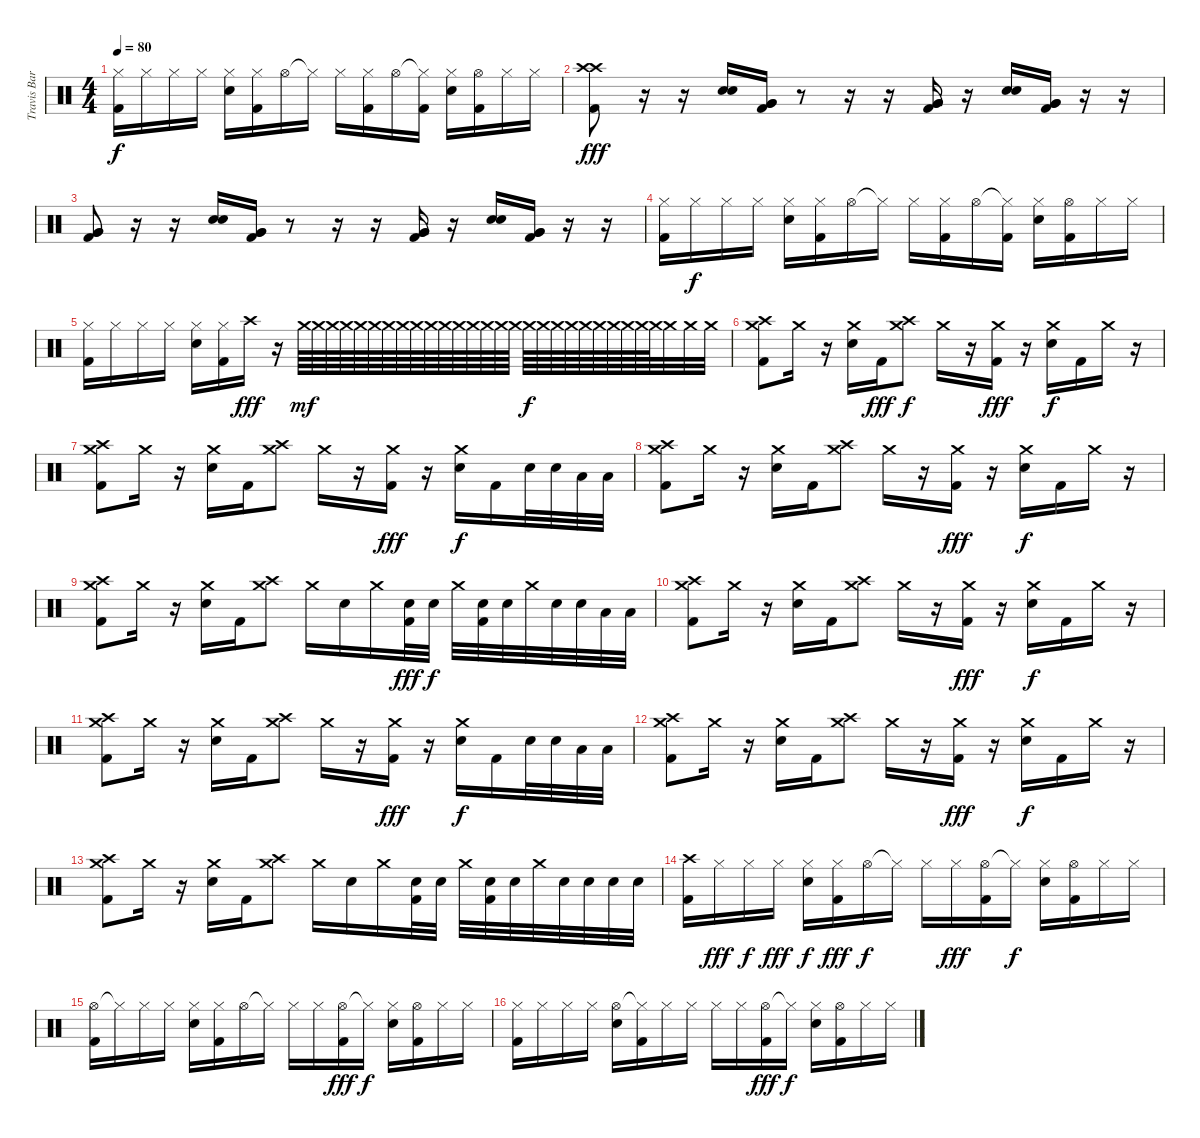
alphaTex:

\track ("Travis Barker" "Travis Bar") {instrument percussion}
\staff {score}
\articulation defaults
\ts (4 4)
\tempo 80
\clef neutral
\ks c
("Hi-Hat (closed)" "Kick (hit) 2").16{dy f} "Hi-Hat (closed)".16 "Hi-Hat (closed)".16 "Hi-Hat (closed)".16 ("Hi-Hat (closed)" "Electric Snare (hit)").16 ("Hi-Hat (closed)" "Kick (hit) 2").16 "Hi-Hat (open)".16 "Hi-Hat (closed)"{t}.16 "Hi-Hat (closed)".16 ("Hi-Hat (closed)" "Kick (hit) 2").16 "Hi-Hat (open)".16 ("Hi-Hat (closed)"{t} "Kick (hit) 2").16 ("Hi-Hat (closed)" "Electric Snare (hit)").16 ("Hi-Hat (open)" "Kick (hit) 2").16 "Hi-Hat (closed)".16 "Hi-Hat (closed)".16 |
("Crash high (hit)" "Crash high (hit)" "Kick (hit) 2").8{dy fff} r.16 r.16 ("Electric Snare (hit)" "Electric Snare (hit)").16 ("Very Low Tom (hit)" "Very Low Tom (hit)" "Kick (hit) 2").16 r.8 r.16 r.16 ("Very Low Tom (hit)" "Very Low Tom (hit)" "Kick (hit) 2").16 r.16 ("Electric Snare (hit)" "Electric Snare (hit)").16 ("Very Low Tom (hit)" "Very Low Tom (hit)" "Kick (hit) 2").16 r.16 r.16 |
("Very Low Tom (hit)" "Very Low Tom (hit)" "Kick (hit) 2").8 r.16 r.16 ("Electric Snare (hit)" "Electric Snare (hit)").16 ("Very Low Tom (hit)" "Very Low Tom (hit)" "Kick (hit) 2").16 r.8 r.16 r.16 ("Very Low Tom (hit)" "Very Low Tom (hit)" "Kick (hit) 2").16 r.16 ("Electric Snare (hit)" "Electric Snare (hit)").16 ("Very Low Tom (hit)" "Very Low Tom (hit)" "Kick (hit) 2").16 r.16 r.16 |
("Hi-Hat (closed)" "Kick (hit) 2").16 "Hi-Hat (closed)".16{dy f} "Hi-Hat (closed)".16 "Hi-Hat (closed)".16 ("Hi-Hat (closed)" "Electric Snare (hit)").16 ("Hi-Hat (closed)" "Kick (hit) 2").16 "Hi-Hat (open)".16 "Hi-Hat (closed)"{t}.16 "Hi-Hat (closed)".16 ("Hi-Hat (closed)" "Kick (hit) 2").16 "Hi-Hat (open)".16 ("Hi-Hat (closed)"{t} "Kick (hit) 2").16 ("Hi-Hat (closed)" "Electric Snare (hit)").16 ("Hi-Hat (open)" "Kick (hit) 2").16 "Hi-Hat (closed)".16 "Hi-Hat (closed)".16 |
("Hi-Hat (closed)" "Kick (hit) 2").16 "Hi-Hat (closed)".16 "Hi-Hat (closed)".16 "Hi-Hat (closed)".16 ("Hi-Hat (closed)" "Electric Snare (hit)").16 ("Hi-Hat (closed)" "Kick (hit) 2").16 "Crash high (hit)".16{dy fff} r.16 "Crash medium (hit)".64{dy mf} "Crash medium (hit)".64 "Crash medium (hit)".64 "Crash medium (hit)".64 "Crash medium (hit)".64 "Crash medium (hit)".64 "Crash medium (hit)".64 "Crash medium (hit)".64 "Crash medium (hit)".64 "Crash medium (hit)".64 "Crash medium (hit)".64 "Crash medium (hit)".64 "Crash medium (hit)".64 "Crash medium (hit)".64 "Crash medium (hit)".64 "Crash medium (hit)".64 "Crash medium (hit)".64{dy f} "Crash medium (hit)".64 "Crash medium (hit)".64 "Crash medium (hit)".64 "Crash medium (hit)".64 "Crash medium (hit)".64 "Crash medium (hit)".64 "Crash medium (hit)".64 "Crash medium (hit)".64 "Crash medium (hit)".64 "Crash medium (hit)".32 "Crash medium (hit)".32 "Crash medium (hit)".32 |
("Crash high (hit)" "Crash medium (hit)" "Kick (hit) 2").8 "Crash medium (hit)".16 r.16 ("Crash medium (hit)" "Electric Snare (hit)").16 "Kick (hit) 2".16{dy fff} ("Crash high (hit)" "Crash medium (hit)").8{dy f} "Crash medium (hit)".16 r.16 ("Crash medium (hit)" "Kick (hit) 2").16{dy fff} r.16 ("Crash medium (hit)" "Electric Snare (hit)").16{dy f} "Kick (hit) 2".16 "Crash medium (hit)".16 r.16 |
("Crash high (hit)" "Crash medium (hit)" "Kick (hit) 2").8 "Crash medium (hit)".16 r.16 ("Crash medium (hit)" "Electric Snare (hit)").16 "Kick (hit) 2".16 ("Crash high (hit)" "Crash medium (hit)").8 "Crash medium (hit)".16 r.16 ("Crash medium (hit)" "Kick (hit) 2").16{dy fff} r.16 ("Crash medium (hit)" "Electric Snare (hit)").16{dy f} "Kick (hit) 2".16 "Electric Snare (hit)".32 "Electric Snare (hit)".32 "Low Tom (hit)".32 "Low Tom (hit)".32 |
("Crash high (hit)" "Crash medium (hit)" "Kick (hit) 2").8 "Crash medium (hit)".16 r.16 ("Crash medium (hit)" "Electric Snare (hit)").16 "Kick (hit) 2".16 ("Crash high (hit)" "Crash medium (hit)").8 "Crash medium (hit)".16 r.16 ("Crash medium (hit)" "Kick (hit) 2").16{dy fff} r.16 ("Crash medium (hit)" "Electric Snare (hit)").16{dy f} "Kick (hit) 2".16 "Crash medium (hit)".16 r.16 |
("Crash high (hit)" "Crash medium (hit)" "Kick (hit) 2").8 "Crash medium (hit)".16 r.16 ("Crash medium (hit)" "Electric Snare (hit)").16 "Kick (hit) 2".16 ("Crash high (hit)" "Crash medium (hit)").8 "Crash medium (hit)".16 "Electric Snare (hit)".16 "Crash medium (hit)".16 ("Electric Snare (hit)" "Kick (hit) 2").32{dy fff} "Electric Snare (hit)".32{dy f} "Crash medium (hit)".32 ("Electric Snare (hit)" "Kick (hit) 2").32 "Electric Snare (hit)".32 "Crash medium (hit)".32 "Electric Snare (hit)".32 "Electric Snare (hit)".32 "Low Tom (hit)".32 "Low Tom (hit)".32 |
("Crash high (hit)" "Crash medium (hit)" "Kick (hit) 2").8 "Crash medium (hit)".16 r.16 ("Crash medium (hit)" "Electric Snare (hit)").16 "Kick (hit) 2".16 ("Crash high (hit)" "Crash medium (hit)").8 "Crash medium (hit)".16 r.16 ("Crash medium (hit)" "Kick (hit) 2").16{dy fff} r.16 ("Crash medium (hit)" "Electric Snare (hit)").16{dy f} "Kick (hit) 2".16 "Crash medium (hit)".16 r.16 |
("Crash high (hit)" "Crash medium (hit)" "Kick (hit) 2").8 "Crash medium (hit)".16 r.16 ("Crash medium (hit)" "Electric Snare (hit)").16 "Kick (hit) 2".16 ("Crash high (hit)" "Crash medium (hit)").8 "Crash medium (hit)".16 r.16 ("Crash medium (hit)" "Kick (hit) 2").16{dy fff} r.16 ("Crash medium (hit)" "Electric Snare (hit)").16{dy f} "Kick (hit) 2".16 "Electric Snare (hit)".32 "Electric Snare (hit)".32 "Low Tom (hit)".32 "Low Tom (hit)".32 |
("Crash high (hit)" "Crash medium (hit)" "Kick (hit) 2").8 "Crash medium (hit)".16 r.16 ("Crash medium (hit)" "Electric Snare (hit)").16 "Kick (hit) 2".16 ("Crash high (hit)" "Crash medium (hit)").8 "Crash medium (hit)".16 r.16 ("Crash medium (hit)" "Kick (hit) 2").16{dy fff} r.16 ("Crash medium (hit)" "Electric Snare (hit)").16{dy f} "Kick (hit) 2".16 "Crash medium (hit)".16 r.16 |
("Crash high (hit)" "Crash medium (hit)" "Kick (hit) 2").8 "Crash medium (hit)".16 r.16 ("Crash medium (hit)" "Electric Snare (hit)").16 "Kick (hit) 2".16 ("Crash high (hit)" "Crash medium (hit)").8 "Crash medium (hit)".16 "Electric Snare (hit)".16 "Crash medium (hit)".16 ("Electric Snare (hit)" "Kick (hit) 2").32 "Electric Snare (hit)".32 "Crash medium (hit)".32 ("Electric Snare (hit)" "Kick (hit) 2").32 "Electric Snare (hit)".32 "Crash medium (hit)".32 "Electric Snare (hit)".32 "Electric Snare (hit)".32 "Electric Snare (hit)".32 "Electric Snare (hit)".32 |
("Crash high (hit)" "Kick (hit) 2").16 "Hi-Hat (closed)".16{dy fff} "Hi-Hat (closed)".16{dy f} "Hi-Hat (closed)".16{dy fff} ("Hi-Hat (closed)" "Electric Snare (hit)").16{dy f} ("Hi-Hat (closed)" "Kick (hit) 2").16{dy fff} "Hi-Hat (open)".16{dy f} "Hi-Hat (closed)"{t}.16 "Hi-Hat (closed)".16 "Hi-Hat (closed)".16{dy fff} ("Hi-Hat (open)" "Kick (hit) 2").16 "Hi-Hat (closed)"{t}.16{dy f} ("Hi-Hat (closed)" "Electric Snare (hit)").16 ("Hi-Hat (open)" "Kick (hit) 2").16 "Hi-Hat (closed)".16 "Hi-Hat (closed)".16 |
("Hi-Hat (open)" "Kick (hit) 2").16 "Hi-Hat (closed)"{t}.16 "Hi-Hat (closed)".16 "Hi-Hat (closed)".16 ("Hi-Hat (closed)" "Electric Snare (hit)").16 ("Hi-Hat (closed)" "Kick (hit) 2").16 "Hi-Hat (open)".16 "Hi-Hat (closed)"{t}.16 "Hi-Hat (closed)".16 "Hi-Hat (closed)".16 ("Hi-Hat (open)" "Kick (hit) 2").16{dy fff} "Hi-Hat (closed)"{t}.16{dy f} ("Hi-Hat (closed)" "Electric Snare (hit)").16 ("Hi-Hat (open)" "Kick (hit) 2").16 "Hi-Hat (closed)".16 "Hi-Hat (closed)".16 |
("Hi-Hat (closed)" "Kick (hit) 2").16 "Hi-Hat (closed)".16 "Hi-Hat (closed)".16 "Hi-Hat (closed)".16 ("Hi-Hat (open)" "Electric Snare (hit)").16 ("Hi-Hat (closed)"{t} "Kick (hit) 2").16 "Hi-Hat (closed)".16 "Hi-Hat (closed)".16 "Hi-Hat (closed)".16 "Hi-Hat (closed)".16 ("Hi-Hat (open)" "Kick (hit) 2").16{dy fff} "Hi-Hat (closed)"{t}.16{dy f} ("Hi-Hat (closed)" "Electric Snare (hit)").16 ("Hi-Hat (open)" "Kick (hit) 2").16 "Hi-Hat (closed)".16 "Hi-Hat (closed)".16
